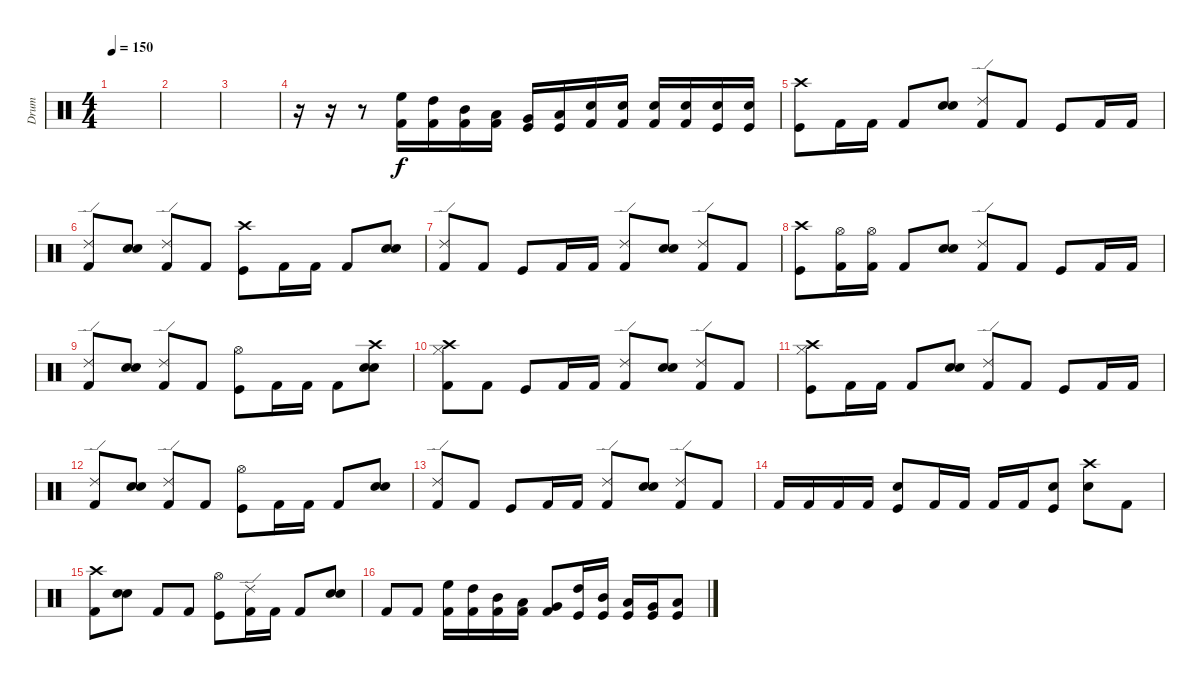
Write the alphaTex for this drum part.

\track ("Drum" "Drum") {instrument percussion}
\staff {score}
\articulation defaults
\ts (4 4)
\tempo 150
\clef neutral
\ks c
|
|
|
r.16 r.16 r.8 ("High Floor Tom (hit)" "Kick (hit) 2").16 ("High Tom (hit)" "Kick (hit) 2").16 ("Mid Tom (hit)" "Kick (hit) 2").16 ("Low Tom (hit)" "Kick (hit) 2").16 ("Very Low Tom (hit)" "Kick (hit)").16 ("Low Floor Tom (hit)" "Kick (hit)").16 ("Snare (hit) 2" "Kick (hit) 2").16 ("Snare (hit) 2" "Kick (hit) 2").16 ("Snare (hit) 2" "Kick (hit) 2").16 ("Electric Snare (hit)" "Kick (hit) 2").16 ("Electric Snare (hit)" "Kick (hit)").16 ("Electric Snare (hit)" "Kick (hit)").16 |
("Crash high (hit)" "Kick (hit)").8 "Kick (hit) 2".16 "Kick (hit) 2".16 "Kick (hit) 2".8 ("Snare (hit) 2" "Electric Snare (hit)").8 ("Ride (edge) 2" "Kick (hit) 2").8 "Kick (hit) 2".8 "Kick (hit)".8 "Kick (hit) 2".16 "Kick (hit) 2".16 |
("Ride (edge) 2" "Kick (hit) 2").8 ("Snare (hit) 2" "Electric Snare (hit)").8 ("Ride (edge) 2" "Kick (hit) 2").8 "Kick (hit) 2".8 ("Crash high (hit)" "Kick (hit)").8 "Kick (hit) 2".16 "Kick (hit) 2".16 "Kick (hit) 2".8 ("Snare (hit) 2" "Electric Snare (hit)").8 |
("Ride (edge) 2" "Kick (hit) 2").8 "Kick (hit) 2".8 "Kick (hit)".8 "Kick (hit) 2".16 "Kick (hit) 2".16 ("Ride (edge) 2" "Kick (hit) 2").8 ("Snare (hit) 2" "Electric Snare (hit)").8 ("Ride (edge) 2" "Kick (hit) 2").8 "Kick (hit) 2".8 |
("Crash high (hit)" "Kick (hit)").8 ("Hi-Hat (open)" "Kick (hit) 2").16 ("Hi-Hat (open)" "Kick (hit) 2").16 "Kick (hit) 2".8 ("Snare (hit) 2" "Electric Snare (hit)").8 ("Ride (edge) 2" "Kick (hit) 2").8 "Kick (hit) 2".8 "Kick (hit)".8 "Kick (hit) 2".16 "Kick (hit) 2".16 |
("Ride (edge) 2" "Kick (hit) 2").8 ("Snare (hit) 2" "Electric Snare (hit)").8 ("Ride (edge) 2" "Kick (hit) 2").8 "Kick (hit) 2".8 ("Hi-Hat (open)" "Kick (hit)").8 "Kick (hit) 2".16 "Kick (hit) 2".16 "Kick (hit) 2".8 ("Crash high (hit)" "Snare (hit) 2" "Electric Snare (hit)").8 |
("Hi-Hat (closed)" "Crash high (hit)" "Kick (hit) 2").8 "Kick (hit) 2".8 "Kick (hit)".8 "Kick (hit) 2".16 "Kick (hit) 2".16 ("Ride (edge) 2" "Kick (hit) 2").8 ("Snare (hit) 2" "Electric Snare (hit)").8 ("Ride (edge) 2" "Kick (hit) 2").8 "Kick (hit) 2".8 |
("Hi-Hat (closed)" "Crash high (hit)" "Kick (hit)").8 "Kick (hit) 2".16 "Kick (hit) 2".16 "Kick (hit) 2".8 ("Snare (hit) 2" "Electric Snare (hit)").8 ("Ride (edge) 2" "Kick (hit) 2").8 "Kick (hit) 2".8 "Kick (hit)".8 "Kick (hit) 2".16 "Kick (hit) 2".16 |
("Ride (edge) 2" "Kick (hit) 2").8 ("Snare (hit) 2" "Electric Snare (hit)").8 ("Ride (edge) 2" "Kick (hit) 2").8 "Kick (hit) 2".8 ("Hi-Hat (open)" "Kick (hit)").8 "Kick (hit) 2".16 "Kick (hit) 2".16 "Kick (hit) 2".8 ("Snare (hit) 2" "Electric Snare (hit)").8 |
("Ride (edge) 2" "Kick (hit) 2").8 "Kick (hit) 2".8 "Kick (hit)".8 "Kick (hit) 2".16 "Kick (hit) 2".16 ("Ride (edge) 2" "Kick (hit) 2").8 ("Snare (hit) 2" "Electric Snare (hit)").8 ("Ride (edge) 2" "Kick (hit) 2").8 "Kick (hit) 2".8 |
"Kick (hit) 2".16 "Kick (hit) 2".16 "Kick (hit) 2".16 "Kick (hit) 2".16 ("Electric Snare (hit)" "Kick (hit)").8 "Kick (hit) 2".16 "Kick (hit) 2".16 "Kick (hit) 2".16 "Kick (hit) 2".16 ("Electric Snare (hit)" "Kick (hit)").8 ("Crash high (hit)" "Electric Snare (hit)").8 "Kick (hit) 2".8 |
("Crash high (hit)" "Kick (hit) 2").8 ("Snare (hit) 2" "Electric Snare (hit)").8 "Kick (hit) 2".8 "Kick (hit) 2".8 ("Hi-Hat (open)" "Kick (hit)").8 ("Ride (edge) 2" "Kick (hit) 2").16 "Kick (hit) 2".16 "Kick (hit) 2".8 ("Snare (hit) 2" "Electric Snare (hit)").8 |
"Kick (hit) 2".8 "Kick (hit) 2".8 ("High Floor Tom (hit)" "Kick (hit) 2").16 ("High Tom (hit)" "Kick (hit) 2").16 ("Mid Tom (hit)" "Kick (hit) 2").16 ("Low Tom (hit)" "Kick (hit) 2").16 ("Very Low Tom (hit)" "Kick (hit) 2").8 ("High Tom (hit)" "Kick (hit)").16 ("Mid Tom (hit)" "Kick (hit)").16 ("Low Tom (hit)" "Kick (hit)").16 ("Very Low Tom (hit)" "Kick (hit)").16 ("Low Floor Tom (hit)" "Kick (hit)").8
